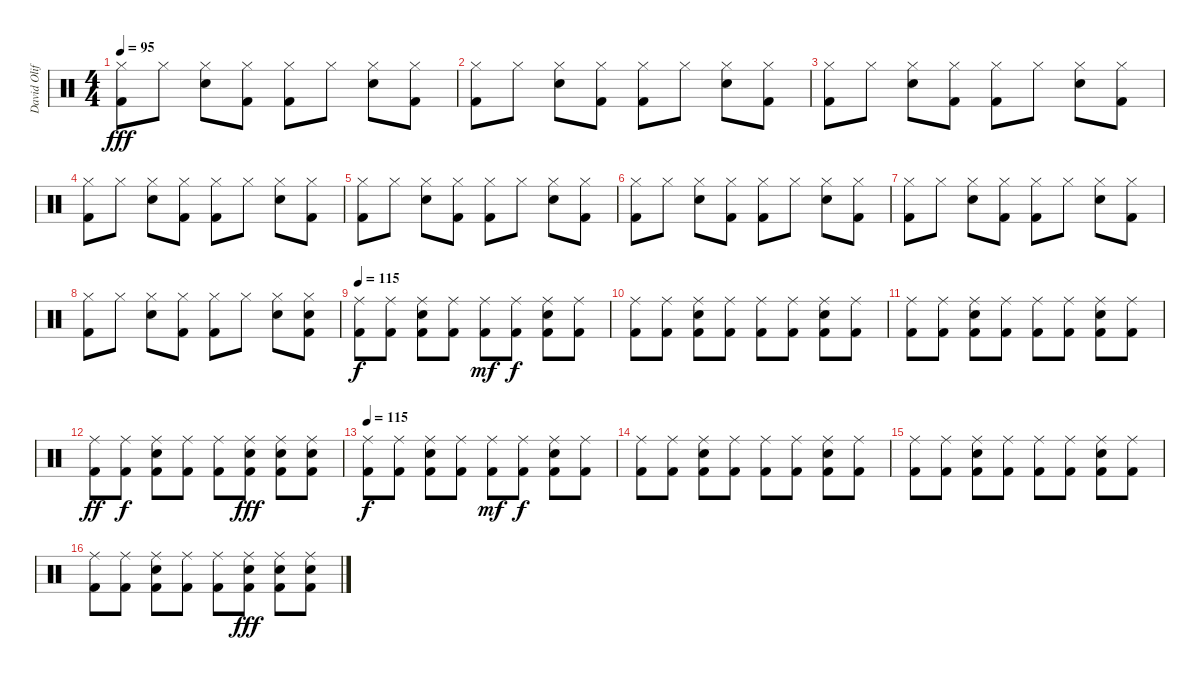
\track ("David Oliffe" "David Olif") {instrument percussion}
\staff {score}
\articulation defaults
\ts (4 4)
\tempo 95
\clef neutral
\ks c
("Hi-Hat (closed)" "Kick (hit) 2").8{dy fff} "Hi-Hat (closed)".8 ("Hi-Hat (closed)" "Electric Snare (hit)").8 ("Hi-Hat (closed)" "Kick (hit) 2").8 ("Hi-Hat (closed)" "Kick (hit) 2").8 "Hi-Hat (closed)".8 ("Hi-Hat (closed)" "Electric Snare (hit)").8 ("Hi-Hat (closed)" "Kick (hit) 2").8 |
("Hi-Hat (closed)" "Kick (hit) 2").8 "Hi-Hat (closed)".8 ("Hi-Hat (closed)" "Electric Snare (hit)").8 ("Hi-Hat (closed)" "Kick (hit) 2").8 ("Hi-Hat (closed)" "Kick (hit) 2").8 "Hi-Hat (closed)".8 ("Hi-Hat (closed)" "Electric Snare (hit)").8 ("Hi-Hat (closed)" "Kick (hit) 2").8 |
("Hi-Hat (closed)" "Kick (hit) 2").8 "Hi-Hat (closed)".8 ("Hi-Hat (closed)" "Electric Snare (hit)").8 ("Hi-Hat (closed)" "Kick (hit) 2").8 ("Hi-Hat (closed)" "Kick (hit) 2").8 "Hi-Hat (closed)".8 ("Hi-Hat (closed)" "Electric Snare (hit)").8 ("Hi-Hat (closed)" "Kick (hit) 2").8 |
("Hi-Hat (closed)" "Kick (hit) 2").8 "Hi-Hat (closed)".8 ("Hi-Hat (closed)" "Electric Snare (hit)").8 ("Hi-Hat (closed)" "Kick (hit) 2").8 ("Hi-Hat (closed)" "Kick (hit) 2").8 "Hi-Hat (closed)".8 ("Hi-Hat (closed)" "Electric Snare (hit)").8 ("Hi-Hat (closed)" "Kick (hit) 2").8 |
("Hi-Hat (closed)" "Kick (hit) 2").8 "Hi-Hat (closed)".8 ("Hi-Hat (closed)" "Electric Snare (hit)").8 ("Hi-Hat (closed)" "Kick (hit) 2").8 ("Hi-Hat (closed)" "Kick (hit) 2").8 "Hi-Hat (closed)".8 ("Hi-Hat (closed)" "Electric Snare (hit)").8 ("Hi-Hat (closed)" "Kick (hit) 2").8 |
("Hi-Hat (closed)" "Kick (hit) 2").8 "Hi-Hat (closed)".8 ("Hi-Hat (closed)" "Electric Snare (hit)").8 ("Hi-Hat (closed)" "Kick (hit) 2").8 ("Hi-Hat (closed)" "Kick (hit) 2").8 "Hi-Hat (closed)".8 ("Hi-Hat (closed)" "Electric Snare (hit)").8 ("Hi-Hat (closed)" "Kick (hit) 2").8 |
("Hi-Hat (closed)" "Kick (hit) 2").8 "Hi-Hat (closed)".8 ("Hi-Hat (closed)" "Electric Snare (hit)").8 ("Hi-Hat (closed)" "Kick (hit) 2").8 ("Hi-Hat (closed)" "Kick (hit) 2").8 "Hi-Hat (closed)".8 ("Hi-Hat (closed)" "Electric Snare (hit)").8 ("Hi-Hat (closed)" "Kick (hit) 2").8 |
("Hi-Hat (closed)" "Kick (hit) 2").8 "Hi-Hat (closed)".8 ("Hi-Hat (closed)" "Electric Snare (hit)").8 ("Hi-Hat (closed)" "Kick (hit) 2").8 ("Hi-Hat (closed)" "Kick (hit) 2").8 "Hi-Hat (closed)".8 ("Hi-Hat (closed)" "Electric Snare (hit)").8 ("Hi-Hat (closed)" "Electric Snare (hit)" "Kick (hit) 2").8 |
\tempo 115
("Ride (middle)" "Kick (hit) 2").8{dy f} ("Ride (middle)" "Kick (hit) 2").8 ("Ride (middle)" "Electric Snare (hit)" "Kick (hit) 2").8 ("Ride (middle)" "Kick (hit) 2").8 ("Ride (middle)" "Kick (hit) 2").8{dy mf} ("Ride (middle)" "Kick (hit) 2").8{dy f} ("Ride (middle)" "Electric Snare (hit)" "Kick (hit) 2").8 ("Ride (middle)" "Kick (hit) 2").8 |
("Ride (middle)" "Kick (hit) 2").8 ("Ride (middle)" "Kick (hit) 2").8 ("Ride (middle)" "Electric Snare (hit)" "Kick (hit) 2").8 ("Ride (middle)" "Kick (hit) 2").8 ("Ride (middle)" "Kick (hit) 2").8 ("Ride (middle)" "Kick (hit) 2").8 ("Ride (middle)" "Electric Snare (hit)" "Kick (hit) 2").8 ("Ride (middle)" "Kick (hit) 2").8 |
("Ride (middle)" "Kick (hit) 2").8 ("Ride (middle)" "Kick (hit) 2").8 ("Ride (middle)" "Electric Snare (hit)" "Kick (hit) 2").8 ("Ride (middle)" "Kick (hit) 2").8 ("Ride (middle)" "Kick (hit) 2").8 ("Ride (middle)" "Kick (hit) 2").8 ("Ride (middle)" "Electric Snare (hit)" "Kick (hit) 2").8 ("Ride (middle)" "Kick (hit) 2").8 |
("Ride (middle)" "Kick (hit) 2").8{dy ff} ("Ride (middle)" "Kick (hit) 2").8{dy f} ("Ride (middle)" "Electric Snare (hit)" "Kick (hit) 2").8 ("Ride (middle)" "Kick (hit) 2").8 ("Ride (middle)" "Kick (hit) 2").8 ("Ride (middle)" "Electric Snare (hit)" "Kick (hit) 2").8{dy fff} ("Ride (middle)" "Electric Snare (hit)" "Kick (hit) 2").8 ("Ride (middle)" "Electric Snare (hit)" "Kick (hit) 2").8 |
\tempo 115
("Ride (middle)" "Kick (hit) 2").8{dy f} ("Ride (middle)" "Kick (hit) 2").8 ("Ride (middle)" "Electric Snare (hit)" "Kick (hit) 2").8 ("Ride (middle)" "Kick (hit) 2").8 ("Ride (middle)" "Kick (hit) 2").8{dy mf} ("Ride (middle)" "Kick (hit) 2").8{dy f} ("Ride (middle)" "Electric Snare (hit)" "Kick (hit) 2").8 ("Ride (middle)" "Kick (hit) 2").8 |
("Ride (middle)" "Kick (hit) 2").8 ("Ride (middle)" "Kick (hit) 2").8 ("Ride (middle)" "Electric Snare (hit)" "Kick (hit) 2").8 ("Ride (middle)" "Kick (hit) 2").8 ("Ride (middle)" "Kick (hit) 2").8 ("Ride (middle)" "Kick (hit) 2").8 ("Ride (middle)" "Electric Snare (hit)" "Kick (hit) 2").8 ("Ride (middle)" "Kick (hit) 2").8 |
("Ride (middle)" "Kick (hit) 2").8 ("Ride (middle)" "Kick (hit) 2").8 ("Ride (middle)" "Electric Snare (hit)" "Kick (hit) 2").8 ("Ride (middle)" "Kick (hit) 2").8 ("Ride (middle)" "Kick (hit) 2").8 ("Ride (middle)" "Kick (hit) 2").8 ("Ride (middle)" "Electric Snare (hit)" "Kick (hit) 2").8 ("Ride (middle)" "Kick (hit) 2").8 |
("Ride (middle)" "Kick (hit) 2").8 ("Ride (middle)" "Kick (hit) 2").8 ("Ride (middle)" "Electric Snare (hit)" "Kick (hit) 2").8 ("Ride (middle)" "Kick (hit) 2").8 ("Ride (middle)" "Kick (hit) 2").8 ("Ride (middle)" "Electric Snare (hit)" "Kick (hit) 2").8{dy fff} ("Ride (middle)" "Electric Snare (hit)" "Kick (hit) 2").8 ("Ride (middle)" "Electric Snare (hit)" "Kick (hit) 2").8
